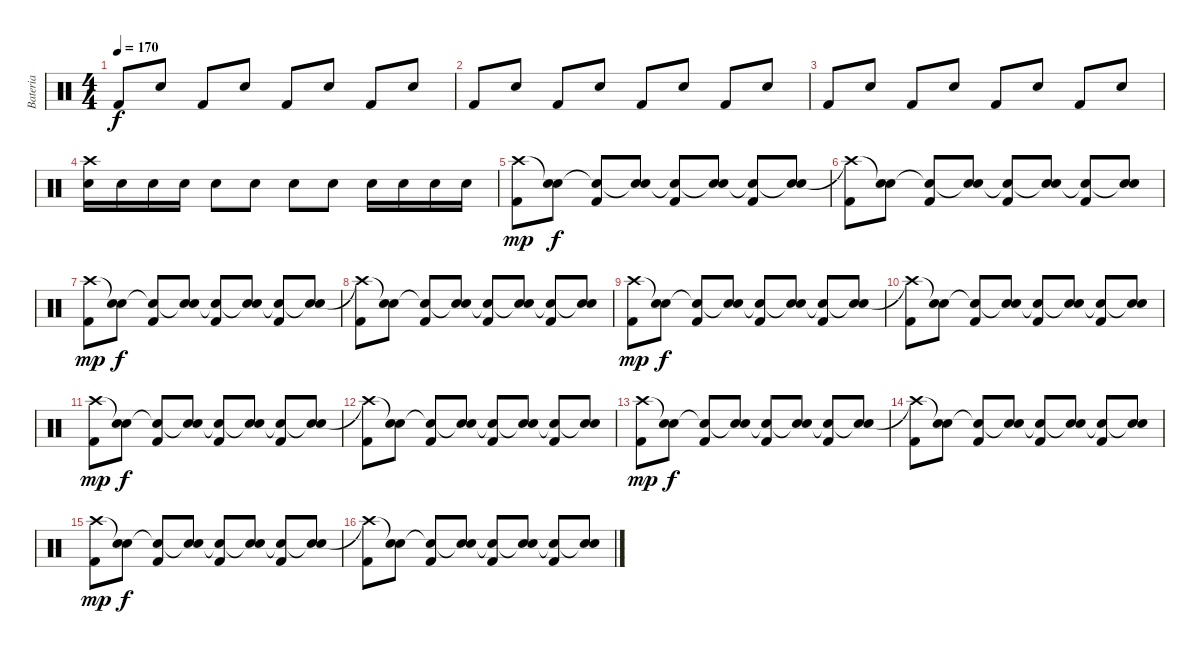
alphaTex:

\track ("Bateria" "Bateria") {instrument percussion}
\staff {score}
\articulation defaults
\ts (4 4)
\tempo 170
\clef neutral
\ks c "Kick (hit) 2".8{dy f} "Electric Snare (hit)".8 "Kick (hit) 2".8 "Electric Snare (hit)".8 "Kick (hit) 2".8 "Electric Snare (hit)".8 "Kick (hit) 2".8 "Electric Snare (hit)".8
|
"Kick (hit) 2".8 "Electric Snare (hit)".8 "Kick (hit) 2".8 "Electric Snare (hit)".8 "Kick (hit) 2".8 "Electric Snare (hit)".8 "Kick (hit) 2".8 "Electric Snare (hit)".8 |
"Kick (hit) 2".8 "Electric Snare (hit)".8 "Kick (hit) 2".8 "Electric Snare (hit)".8 "Kick (hit) 2".8 "Electric Snare (hit)".8 "Kick (hit) 2".8 "Electric Snare (hit)".8 |
("Electric Snare (hit)" "Crash high (hit)").16 "Electric Snare (hit)".16 "Electric Snare (hit)".16 "Electric Snare (hit)".16 "Electric Snare (hit)".8 "Electric Snare (hit)".8 "Electric Snare (hit)".8 "Electric Snare (hit)".8 "Electric Snare (hit)".16 "Electric Snare (hit)".16 "Electric Snare (hit)".16 "Electric Snare (hit)".16 |
("Kick (hit) 2" "Crash high (hit)").8{dy mp} ("Electric Snare (hit)" "Snare (hit)"{t}).8{dy f} ("Kick (hit) 2" "Snare (hit)"{t}).8 ("Electric Snare (hit)" "Snare (hit)"{t}).8 ("Kick (hit) 2" "Snare (hit)"{t}).8 ("Electric Snare (hit)" "Snare (hit)"{t}).8 ("Kick (hit) 2" "Snare (hit)"{t}).8 ("Electric Snare (hit)" "Snare (hit)"{t}).8 |
("Kick (hit) 2" "Crash high (hit)"{t}).8 ("Electric Snare (hit)" "Snare (hit)"{t}).8 ("Kick (hit) 2" "Snare (hit)"{t}).8 ("Electric Snare (hit)" "Snare (hit)"{t}).8 ("Kick (hit) 2" "Snare (hit)"{t}).8 ("Electric Snare (hit)" "Snare (hit)"{t}).8 ("Kick (hit) 2" "Snare (hit)"{t}).8 ("Electric Snare (hit)" "Snare (hit)"{t}).8 |
("Kick (hit) 2" "Crash high (hit)").8{dy mp} ("Electric Snare (hit)" "Snare (hit)"{t}).8{dy f} ("Kick (hit) 2" "Snare (hit)"{t}).8 ("Electric Snare (hit)" "Snare (hit)"{t}).8 ("Kick (hit) 2" "Snare (hit)"{t}).8 ("Electric Snare (hit)" "Snare (hit)"{t}).8 ("Kick (hit) 2" "Snare (hit)"{t}).8 ("Electric Snare (hit)" "Snare (hit)"{t}).8 |
("Kick (hit) 2" "Crash high (hit)"{t}).8 ("Electric Snare (hit)" "Snare (hit)"{t}).8 ("Kick (hit) 2" "Snare (hit)"{t}).8 ("Electric Snare (hit)" "Snare (hit)"{t}).8 ("Kick (hit) 2" "Snare (hit)"{t}).8 ("Electric Snare (hit)" "Snare (hit)"{t}).8 ("Kick (hit) 2" "Snare (hit)"{t}).8 ("Electric Snare (hit)" "Snare (hit)"{t}).8 |
("Kick (hit) 2" "Crash high (hit)").8{dy mp} ("Electric Snare (hit)" "Snare (hit)"{t}).8{dy f} ("Kick (hit) 2" "Snare (hit)"{t}).8 ("Electric Snare (hit)" "Snare (hit)"{t}).8 ("Kick (hit) 2" "Snare (hit)"{t}).8 ("Electric Snare (hit)" "Snare (hit)"{t}).8 ("Kick (hit) 2" "Snare (hit)"{t}).8 ("Electric Snare (hit)" "Snare (hit)"{t}).8 |
("Kick (hit) 2" "Crash high (hit)"{t}).8 ("Electric Snare (hit)" "Snare (hit)"{t}).8 ("Kick (hit) 2" "Snare (hit)"{t}).8 ("Electric Snare (hit)" "Snare (hit)"{t}).8 ("Kick (hit) 2" "Snare (hit)"{t}).8 ("Electric Snare (hit)" "Snare (hit)"{t}).8 ("Kick (hit) 2" "Snare (hit)"{t}).8 ("Electric Snare (hit)" "Snare (hit)"{t}).8 |
("Kick (hit) 2" "Crash high (hit)").8{dy mp} ("Electric Snare (hit)" "Snare (hit)"{t}).8{dy f} ("Kick (hit) 2" "Snare (hit)"{t}).8 ("Electric Snare (hit)" "Snare (hit)"{t}).8 ("Kick (hit) 2" "Snare (hit)"{t}).8 ("Electric Snare (hit)" "Snare (hit)"{t}).8 ("Kick (hit) 2" "Snare (hit)"{t}).8 ("Electric Snare (hit)" "Snare (hit)"{t}).8 |
("Kick (hit) 2" "Crash high (hit)"{t}).8 ("Electric Snare (hit)" "Snare (hit)"{t}).8 ("Kick (hit) 2" "Snare (hit)"{t}).8 ("Electric Snare (hit)" "Snare (hit)"{t}).8 ("Kick (hit) 2" "Snare (hit)"{t}).8 ("Electric Snare (hit)" "Snare (hit)"{t}).8 ("Kick (hit) 2" "Snare (hit)"{t}).8 ("Electric Snare (hit)" "Snare (hit)"{t}).8 |
("Kick (hit) 2" "Crash high (hit)").8{dy mp} ("Electric Snare (hit)" "Snare (hit)"{t}).8{dy f} ("Kick (hit) 2" "Snare (hit)"{t}).8 ("Electric Snare (hit)" "Snare (hit)"{t}).8 ("Kick (hit) 2" "Snare (hit)"{t}).8 ("Electric Snare (hit)" "Snare (hit)"{t}).8 ("Kick (hit) 2" "Snare (hit)"{t}).8 ("Electric Snare (hit)" "Snare (hit)"{t}).8 |
("Kick (hit) 2" "Crash high (hit)"{t}).8 ("Electric Snare (hit)" "Snare (hit)"{t}).8 ("Kick (hit) 2" "Snare (hit)"{t}).8 ("Electric Snare (hit)" "Snare (hit)"{t}).8 ("Kick (hit) 2" "Snare (hit)"{t}).8 ("Electric Snare (hit)" "Snare (hit)"{t}).8 ("Kick (hit) 2" "Snare (hit)"{t}).8 ("Electric Snare (hit)" "Snare (hit)"{t}).8 |
("Kick (hit) 2" "Crash high (hit)").8{dy mp} ("Electric Snare (hit)" "Snare (hit)"{t}).8{dy f} ("Kick (hit) 2" "Snare (hit)"{t}).8 ("Electric Snare (hit)" "Snare (hit)"{t}).8 ("Kick (hit) 2" "Snare (hit)"{t}).8 ("Electric Snare (hit)" "Snare (hit)"{t}).8 ("Kick (hit) 2" "Snare (hit)"{t}).8 ("Electric Snare (hit)" "Snare (hit)"{t}).8 |
("Kick (hit) 2" "Crash high (hit)"{t}).8 ("Electric Snare (hit)" "Snare (hit)"{t}).8 ("Kick (hit) 2" "Snare (hit)"{t}).8 ("Electric Snare (hit)" "Snare (hit)"{t}).8 ("Kick (hit) 2" "Snare (hit)"{t}).8 ("Electric Snare (hit)" "Snare (hit)"{t}).8 ("Kick (hit) 2" "Snare (hit)"{t}).8 ("Electric Snare (hit)" "Snare (hit)"{t}).8
